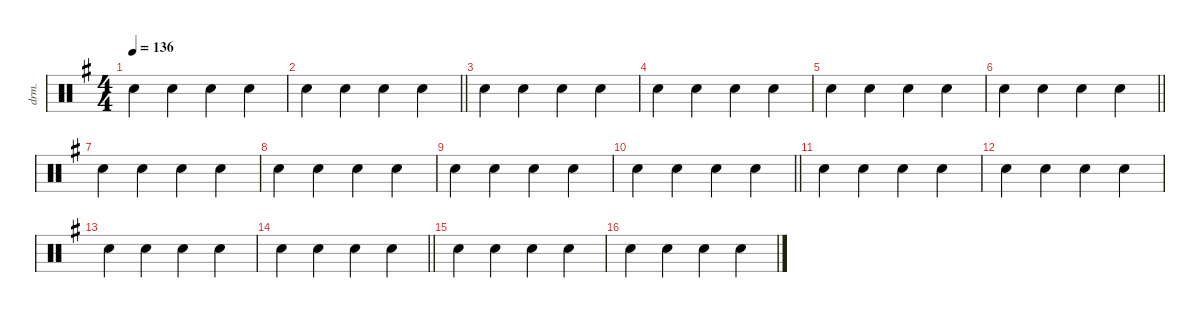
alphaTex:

\defaultSystemsLayout 4
\hideDynamics
\bracketExtendMode nobrackets
\otherSystemsTrackNameOrientation horizontal
\track ("Percussions" "drm.") {instrument percussion}
\staff {score}
\articulation defaults
\ts (4 4)
\tempo 136
\clef neutral
\ks g "Hand Clap (hit)"{acc forcenatural}.4{dy f beam Down} "Hand Clap (hit)"{acc forcenatural}.4{beam Down} "Hand Clap (hit)"{acc forcenatural}.4{beam Down} "Hand Clap (hit)"{acc forcenatural}.4{beam Down}
|
\barLineRight lightlight "Hand Clap (hit)"{acc forcenatural}.4{beam Down} "Hand Clap (hit)"{acc forcenatural}.4{beam Down} "Hand Clap (hit)"{acc forcenatural}.4{beam Down} "Hand Clap (hit)"{acc forcenatural}.4{beam Down}
|
"Hand Clap (hit)"{acc forcenatural}.4{beam Down} "Hand Clap (hit)"{acc forcenatural}.4{beam Down} "Hand Clap (hit)"{acc forcenatural}.4{beam Down} "Hand Clap (hit)"{acc forcenatural}.4{beam Down} |
"Hand Clap (hit)"{acc forcenatural}.4{beam Down} "Hand Clap (hit)"{acc forcenatural}.4{beam Down} "Hand Clap (hit)"{acc forcenatural}.4{beam Down} "Hand Clap (hit)"{acc forcenatural}.4{beam Down} |
"Hand Clap (hit)"{acc forcenatural}.4{beam Down} "Hand Clap (hit)"{acc forcenatural}.4{beam Down} "Hand Clap (hit)"{acc forcenatural}.4{beam Down} "Hand Clap (hit)"{acc forcenatural}.4{beam Down} |
\barLineRight lightlight "Hand Clap (hit)"{acc forcenatural}.4{beam Down} "Hand Clap (hit)"{acc forcenatural}.4{beam Down} "Hand Clap (hit)"{acc forcenatural}.4{beam Down} "Hand Clap (hit)"{acc forcenatural}.4{beam Down}
|
"Hand Clap (hit)"{acc forcenatural}.4{beam Down} "Hand Clap (hit)"{acc forcenatural}.4{beam Down} "Hand Clap (hit)"{acc forcenatural}.4{beam Down} "Hand Clap (hit)"{acc forcenatural}.4{beam Down} |
"Hand Clap (hit)"{acc forcenatural}.4{beam Down} "Hand Clap (hit)"{acc forcenatural}.4{beam Down} "Hand Clap (hit)"{acc forcenatural}.4{beam Down} "Hand Clap (hit)"{acc forcenatural}.4{beam Down} |
"Hand Clap (hit)"{acc forcenatural}.4{beam Down} "Hand Clap (hit)"{acc forcenatural}.4{beam Down} "Hand Clap (hit)"{acc forcenatural}.4{beam Down} "Hand Clap (hit)"{acc forcenatural}.4{beam Down} |
\barLineRight lightlight "Hand Clap (hit)"{acc forcenatural}.4{beam Down} "Hand Clap (hit)"{acc forcenatural}.4{beam Down} "Hand Clap (hit)"{acc forcenatural}.4{beam Down} "Hand Clap (hit)"{acc forcenatural}.4{beam Down}
|
"Hand Clap (hit)"{acc forcenatural}.4{beam Down} "Hand Clap (hit)"{acc forcenatural}.4{beam Down} "Hand Clap (hit)"{acc forcenatural}.4{beam Down} "Hand Clap (hit)"{acc forcenatural}.4{beam Down} |
"Hand Clap (hit)"{acc forcenatural}.4{beam Down} "Hand Clap (hit)"{acc forcenatural}.4{beam Down} "Hand Clap (hit)"{acc forcenatural}.4{beam Down} "Hand Clap (hit)"{acc forcenatural}.4{beam Down} |
"Hand Clap (hit)"{acc forcenatural}.4{beam Down} "Hand Clap (hit)"{acc forcenatural}.4{beam Down} "Hand Clap (hit)"{acc forcenatural}.4{beam Down} "Hand Clap (hit)"{acc forcenatural}.4{beam Down} |
\barLineRight lightlight "Hand Clap (hit)"{acc forcenatural}.4{beam Down} "Hand Clap (hit)"{acc forcenatural}.4{beam Down} "Hand Clap (hit)"{acc forcenatural}.4{beam Down} "Hand Clap (hit)"{acc forcenatural}.4{beam Down}
|
"Hand Clap (hit)"{acc forcenatural}.4{beam Down} "Hand Clap (hit)"{acc forcenatural}.4{beam Down} "Hand Clap (hit)"{acc forcenatural}.4{beam Down} "Hand Clap (hit)"{acc forcenatural}.4{beam Down} |
"Hand Clap (hit)"{acc forcenatural}.4{beam Down} "Hand Clap (hit)"{acc forcenatural}.4{beam Down} "Hand Clap (hit)"{acc forcenatural}.4{beam Down} "Hand Clap (hit)"{acc forcenatural}.4{beam Down}
